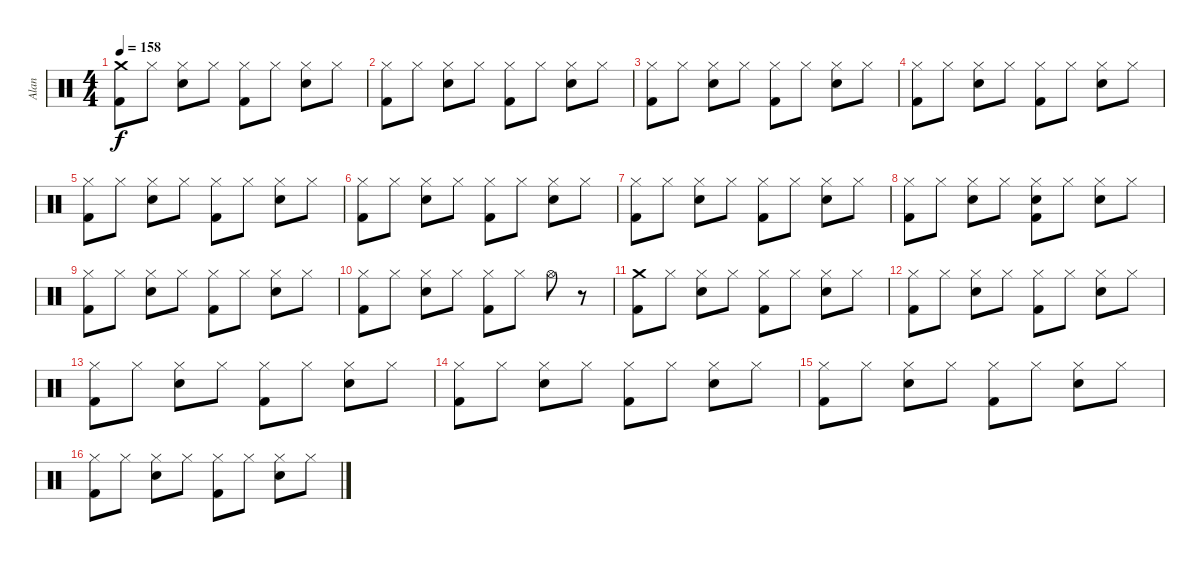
\track ("Alan" "Alan") {instrument percussion}
\staff {score}
\articulation defaults
\ts (4 4)
\tempo 158
\clef neutral
\ks c
("Crash medium (hit)" "Kick (hit) 2").8{dy f} "Hi-Hat (closed)".8 ("Hi-Hat (closed)" "Electric Snare (hit)").8 "Hi-Hat (closed)".8 ("Kick (hit) 2" "Hi-Hat (closed)").8 "Hi-Hat (closed)".8 ("Hi-Hat (closed)" "Electric Snare (hit)").8 "Hi-Hat (closed)".8 |
("Kick (hit) 2" "Hi-Hat (closed)").8 "Hi-Hat (closed)".8 ("Hi-Hat (closed)" "Electric Snare (hit)").8 "Hi-Hat (closed)".8 ("Kick (hit) 2" "Hi-Hat (closed)").8 "Hi-Hat (closed)".8 ("Hi-Hat (closed)" "Electric Snare (hit)").8 "Hi-Hat (closed)".8 |
("Kick (hit) 2" "Hi-Hat (closed)").8 "Hi-Hat (closed)".8 ("Hi-Hat (closed)" "Electric Snare (hit)").8 "Hi-Hat (closed)".8 ("Kick (hit) 2" "Hi-Hat (closed)").8 "Hi-Hat (closed)".8 ("Hi-Hat (closed)" "Electric Snare (hit)").8 "Hi-Hat (closed)".8 |
("Kick (hit) 2" "Hi-Hat (closed)").8 "Hi-Hat (closed)".8 ("Hi-Hat (closed)" "Electric Snare (hit)").8 "Hi-Hat (closed)".8 ("Kick (hit) 2" "Hi-Hat (closed)").8 "Hi-Hat (closed)".8 ("Hi-Hat (closed)" "Electric Snare (hit)").8 "Hi-Hat (closed)".8 |
("Kick (hit) 2" "Hi-Hat (closed)").8 "Hi-Hat (closed)".8 ("Hi-Hat (closed)" "Electric Snare (hit)").8 "Hi-Hat (closed)".8 ("Kick (hit) 2" "Hi-Hat (closed)").8 "Hi-Hat (closed)".8 ("Hi-Hat (closed)" "Electric Snare (hit)").8 "Hi-Hat (closed)".8 |
("Kick (hit) 2" "Hi-Hat (closed)").8 "Hi-Hat (closed)".8 ("Hi-Hat (closed)" "Electric Snare (hit)").8 "Hi-Hat (closed)".8 ("Kick (hit) 2" "Hi-Hat (closed)").8 "Hi-Hat (closed)".8 ("Hi-Hat (closed)" "Electric Snare (hit)").8 "Hi-Hat (closed)".8 |
("Kick (hit) 2" "Hi-Hat (closed)").8 "Hi-Hat (closed)".8 ("Hi-Hat (closed)" "Electric Snare (hit)").8 "Hi-Hat (closed)".8 ("Kick (hit) 2" "Hi-Hat (closed)").8 "Hi-Hat (closed)".8 ("Hi-Hat (closed)" "Electric Snare (hit)").8 "Hi-Hat (closed)".8 |
("Kick (hit) 2" "Hi-Hat (closed)").8 "Hi-Hat (closed)".8 ("Hi-Hat (closed)" "Electric Snare (hit)").8 "Hi-Hat (closed)".8 ("Kick (hit) 2" "Hi-Hat (closed)" "Electric Snare (hit)").8 "Hi-Hat (closed)".8 ("Hi-Hat (closed)" "Electric Snare (hit)").8 "Hi-Hat (closed)".8 |
("Kick (hit) 2" "Hi-Hat (closed)").8 "Hi-Hat (closed)".8 ("Hi-Hat (closed)" "Electric Snare (hit)").8 "Hi-Hat (closed)".8 ("Kick (hit) 2" "Hi-Hat (closed)").8 "Hi-Hat (closed)".8 ("Hi-Hat (closed)" "Electric Snare (hit)").8 "Hi-Hat (closed)".8 |
("Kick (hit) 2" "Hi-Hat (closed)").8 "Hi-Hat (closed)".8 ("Hi-Hat (closed)" "Electric Snare (hit)").8 "Hi-Hat (closed)".8 ("Kick (hit) 2" "Hi-Hat (closed)").8 "Hi-Hat (closed)".8 "Hi-Hat (open)".8 r.8 |
("Kick (hit) 2" "Crash medium (hit)").8 "Hi-Hat (closed)".8 ("Hi-Hat (closed)" "Electric Snare (hit)").8 "Hi-Hat (closed)".8 ("Kick (hit) 2" "Hi-Hat (closed)").8 "Hi-Hat (closed)".8 ("Hi-Hat (closed)" "Electric Snare (hit)").8 "Hi-Hat (closed)".8 |
("Kick (hit) 2" "Hi-Hat (closed)").8 "Hi-Hat (closed)".8 ("Hi-Hat (closed)" "Electric Snare (hit)").8 "Hi-Hat (closed)".8 ("Kick (hit) 2" "Hi-Hat (closed)").8 "Hi-Hat (closed)".8 ("Hi-Hat (closed)" "Electric Snare (hit)").8 "Hi-Hat (closed)".8 |
("Kick (hit) 2" "Hi-Hat (closed)").8 "Hi-Hat (closed)".8 ("Hi-Hat (closed)" "Electric Snare (hit)").8 "Hi-Hat (closed)".8 ("Kick (hit) 2" "Hi-Hat (closed)").8 "Hi-Hat (closed)".8 ("Hi-Hat (closed)" "Electric Snare (hit)").8 "Hi-Hat (closed)".8 |
("Kick (hit) 2" "Hi-Hat (closed)").8 "Hi-Hat (closed)".8 ("Hi-Hat (closed)" "Electric Snare (hit)").8 "Hi-Hat (closed)".8 ("Kick (hit) 2" "Hi-Hat (closed)").8 "Hi-Hat (closed)".8 ("Hi-Hat (closed)" "Electric Snare (hit)").8 "Hi-Hat (closed)".8 |
("Kick (hit) 2" "Hi-Hat (closed)").8 "Hi-Hat (closed)".8 ("Hi-Hat (closed)" "Electric Snare (hit)").8 "Hi-Hat (closed)".8 ("Kick (hit) 2" "Hi-Hat (closed)").8 "Hi-Hat (closed)".8 ("Hi-Hat (closed)" "Electric Snare (hit)").8 "Hi-Hat (closed)".8 |
("Kick (hit) 2" "Hi-Hat (closed)").8 "Hi-Hat (closed)".8 ("Hi-Hat (closed)" "Electric Snare (hit)").8 "Hi-Hat (closed)".8 ("Kick (hit) 2" "Hi-Hat (closed)").8 "Hi-Hat (closed)".8 ("Hi-Hat (closed)" "Electric Snare (hit)").8 "Hi-Hat (closed)".8
